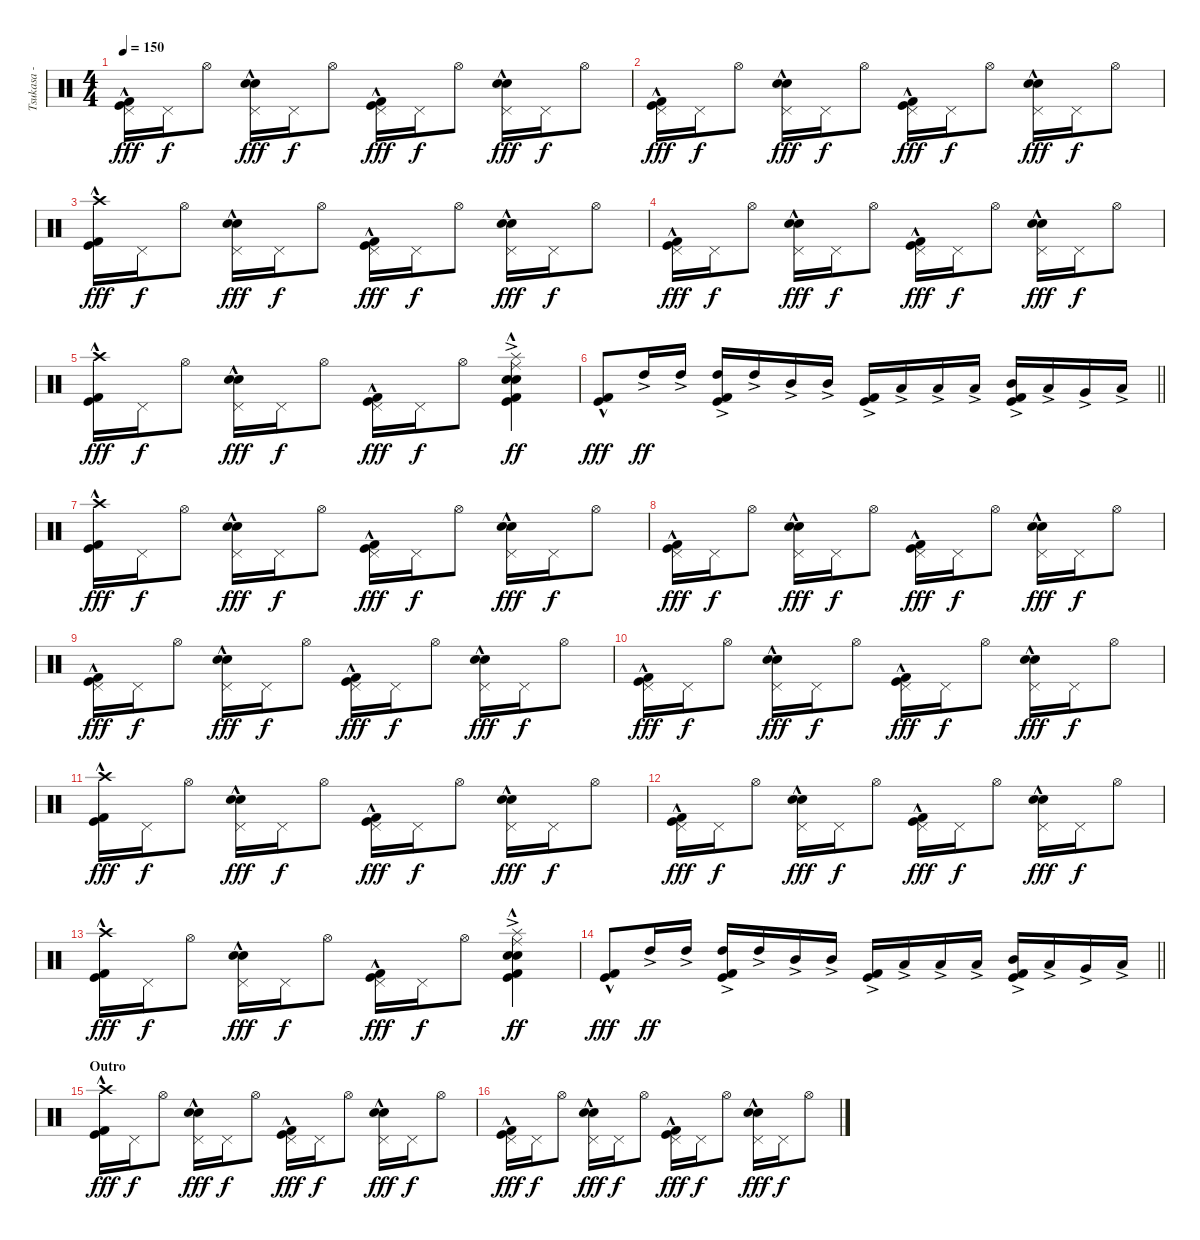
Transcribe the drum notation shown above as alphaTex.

\track ("Tsukasa - Drums" "Tsukasa - ") {instrument percussion}
\staff {score}
\articulation defaults
\ts (4 4)
\tempo 150
\clef neutral
\ks c
("Pedal Hi-Hat (hit)" "Kick (hit)"{hac} "Kick (hit) 2"{hac}).16{dy fff} "Pedal Hi-Hat (hit)".16{dy f} "Hi-Hat (open)".8 ("Pedal Hi-Hat (hit)" "Electric Snare (hit)"{hac} "Snare (hit) 2").16{dy fff} "Pedal Hi-Hat (hit)".16{dy f} "Hi-Hat (open)".8 ("Pedal Hi-Hat (hit)" "Kick (hit)"{hac} "Kick (hit) 2"{hac}).16{dy fff} "Pedal Hi-Hat (hit)".16{dy f} "Hi-Hat (open)".8 ("Pedal Hi-Hat (hit)" "Electric Snare (hit)"{hac} "Snare (hit) 2").16{dy fff} "Pedal Hi-Hat (hit)".16{dy f} "Hi-Hat (open)".8 |
("Pedal Hi-Hat (hit)" "Kick (hit)"{hac} "Kick (hit) 2"{hac}).16{dy fff} "Pedal Hi-Hat (hit)".16{dy f} "Hi-Hat (open)".8 ("Pedal Hi-Hat (hit)" "Electric Snare (hit)"{hac} "Snare (hit) 2").16{dy fff} "Pedal Hi-Hat (hit)".16{dy f} "Hi-Hat (open)".8 ("Pedal Hi-Hat (hit)" "Kick (hit)"{hac} "Kick (hit) 2"{hac}).16{dy fff} "Pedal Hi-Hat (hit)".16{dy f} "Hi-Hat (open)".8 ("Pedal Hi-Hat (hit)" "Electric Snare (hit)"{hac} "Snare (hit) 2").16{dy fff} "Pedal Hi-Hat (hit)".16{dy f} "Hi-Hat (open)".8 |
("Crash high (hit)" "Kick (hit)"{hac} "Kick (hit) 2"{hac}).16{dy fff} "Pedal Hi-Hat (hit)".16{dy f} "Hi-Hat (open)".8 ("Pedal Hi-Hat (hit)" "Electric Snare (hit)"{hac} "Snare (hit) 2").16{dy fff} "Pedal Hi-Hat (hit)".16{dy f} "Hi-Hat (open)".8 ("Pedal Hi-Hat (hit)" "Kick (hit)"{hac} "Kick (hit) 2"{hac}).16{dy fff} "Pedal Hi-Hat (hit)".16{dy f} "Hi-Hat (open)".8 ("Pedal Hi-Hat (hit)" "Electric Snare (hit)"{hac} "Snare (hit) 2").16{dy fff} "Pedal Hi-Hat (hit)".16{dy f} "Hi-Hat (open)".8 |
("Pedal Hi-Hat (hit)" "Kick (hit)"{hac} "Kick (hit) 2"{hac}).16{dy fff} "Pedal Hi-Hat (hit)".16{dy f} "Hi-Hat (open)".8 ("Pedal Hi-Hat (hit)" "Electric Snare (hit)"{hac} "Snare (hit) 2").16{dy fff} "Pedal Hi-Hat (hit)".16{dy f} "Hi-Hat (open)".8 ("Pedal Hi-Hat (hit)" "Kick (hit)"{hac} "Kick (hit) 2"{hac}).16{dy fff} "Pedal Hi-Hat (hit)".16{dy f} "Hi-Hat (open)".8 ("Pedal Hi-Hat (hit)" "Electric Snare (hit)"{hac} "Snare (hit) 2").16{dy fff} "Pedal Hi-Hat (hit)".16{dy f} "Hi-Hat (open)".8 |
("Crash high (hit)" "Kick (hit)"{hac} "Kick (hit) 2"{hac}).16{dy fff} "Pedal Hi-Hat (hit)".16{dy f} "Hi-Hat (open)".8 ("Pedal Hi-Hat (hit)" "Electric Snare (hit)"{hac} "Snare (hit) 2").16{dy fff} "Pedal Hi-Hat (hit)".16{dy f} "Hi-Hat (open)".8 ("Pedal Hi-Hat (hit)" "Kick (hit)"{hac} "Kick (hit) 2"{hac}).16{dy fff} "Pedal Hi-Hat (hit)".16{dy f} "Hi-Hat (open)".8 ("Splash (hit)"{ac} "Ride (middle)"{hac} "Electric Snare (hit)" "Snare (hit) 2" "Kick (hit)" "Kick (hit) 2"{ac}).4{dy ff} |
\barLineRight lightlight
("Kick (hit)"{hac} "Kick (hit) 2"{hac}).8{dy fff} "High Tom (hit)"{ac}.16{dy ff} "High Tom (hit)"{ac}.16 ("High Tom (hit)"{ac} "Kick (hit)" "Kick (hit) 2"{ac}).16 "High Tom (hit)"{ac}.16 "Mid Tom (hit)"{ac}.16 "Mid Tom (hit)"{ac}.16 ("Kick (hit)" "Kick (hit) 2"{ac}).16 "Low Tom (hit)"{ac}.16 "Low Tom (hit)"{ac}.16 "Low Tom (hit)"{ac}.16 ("Mid Tom (hit)"{ac} "Kick (hit)" "Kick (hit) 2"{ac}).16 "Low Tom (hit)"{ac}.16 "Very Low Tom (hit)"{ac}.16 "Low Floor Tom (hit)"{ac}.16 |
\section ("" "")
("Crash high (hit)" "Kick (hit)"{hac} "Kick (hit) 2"{hac}).16{dy fff} "Pedal Hi-Hat (hit)".16{dy f} "Hi-Hat (open)".8 ("Pedal Hi-Hat (hit)" "Electric Snare (hit)"{hac} "Snare (hit) 2").16{dy fff} "Pedal Hi-Hat (hit)".16{dy f} "Hi-Hat (open)".8 ("Pedal Hi-Hat (hit)" "Kick (hit)"{hac} "Kick (hit) 2"{hac}).16{dy fff} "Pedal Hi-Hat (hit)".16{dy f} "Hi-Hat (open)".8 ("Pedal Hi-Hat (hit)" "Electric Snare (hit)"{hac} "Snare (hit) 2").16{dy fff} "Pedal Hi-Hat (hit)".16{dy f} "Hi-Hat (open)".8 |
("Pedal Hi-Hat (hit)" "Kick (hit)"{hac} "Kick (hit) 2"{hac}).16{dy fff} "Pedal Hi-Hat (hit)".16{dy f} "Hi-Hat (open)".8 ("Pedal Hi-Hat (hit)" "Electric Snare (hit)"{hac} "Snare (hit) 2").16{dy fff} "Pedal Hi-Hat (hit)".16{dy f} "Hi-Hat (open)".8 ("Pedal Hi-Hat (hit)" "Kick (hit)"{hac} "Kick (hit) 2"{hac}).16{dy fff} "Pedal Hi-Hat (hit)".16{dy f} "Hi-Hat (open)".8 ("Pedal Hi-Hat (hit)" "Electric Snare (hit)"{hac} "Snare (hit) 2").16{dy fff} "Pedal Hi-Hat (hit)".16{dy f} "Hi-Hat (open)".8 |
("Pedal Hi-Hat (hit)" "Kick (hit)"{hac} "Kick (hit) 2"{hac}).16{dy fff} "Pedal Hi-Hat (hit)".16{dy f} "Hi-Hat (open)".8 ("Pedal Hi-Hat (hit)" "Electric Snare (hit)"{hac} "Snare (hit) 2").16{dy fff} "Pedal Hi-Hat (hit)".16{dy f} "Hi-Hat (open)".8 ("Pedal Hi-Hat (hit)" "Kick (hit)"{hac} "Kick (hit) 2"{hac}).16{dy fff} "Pedal Hi-Hat (hit)".16{dy f} "Hi-Hat (open)".8 ("Pedal Hi-Hat (hit)" "Electric Snare (hit)"{hac} "Snare (hit) 2").16{dy fff} "Pedal Hi-Hat (hit)".16{dy f} "Hi-Hat (open)".8 |
("Pedal Hi-Hat (hit)" "Kick (hit)"{hac} "Kick (hit) 2"{hac}).16{dy fff} "Pedal Hi-Hat (hit)".16{dy f} "Hi-Hat (open)".8 ("Pedal Hi-Hat (hit)" "Electric Snare (hit)"{hac} "Snare (hit) 2").16{dy fff} "Pedal Hi-Hat (hit)".16{dy f} "Hi-Hat (open)".8 ("Pedal Hi-Hat (hit)" "Kick (hit)"{hac} "Kick (hit) 2"{hac}).16{dy fff} "Pedal Hi-Hat (hit)".16{dy f} "Hi-Hat (open)".8 ("Pedal Hi-Hat (hit)" "Electric Snare (hit)"{hac} "Snare (hit) 2").16{dy fff} "Pedal Hi-Hat (hit)".16{dy f} "Hi-Hat (open)".8 |
("Crash high (hit)" "Kick (hit)"{hac} "Kick (hit) 2"{hac}).16{dy fff} "Pedal Hi-Hat (hit)".16{dy f} "Hi-Hat (open)".8 ("Pedal Hi-Hat (hit)" "Electric Snare (hit)"{hac} "Snare (hit) 2").16{dy fff} "Pedal Hi-Hat (hit)".16{dy f} "Hi-Hat (open)".8 ("Pedal Hi-Hat (hit)" "Kick (hit)"{hac} "Kick (hit) 2"{hac}).16{dy fff} "Pedal Hi-Hat (hit)".16{dy f} "Hi-Hat (open)".8 ("Pedal Hi-Hat (hit)" "Electric Snare (hit)"{hac} "Snare (hit) 2").16{dy fff} "Pedal Hi-Hat (hit)".16{dy f} "Hi-Hat (open)".8 |
("Pedal Hi-Hat (hit)" "Kick (hit)"{hac} "Kick (hit) 2"{hac}).16{dy fff} "Pedal Hi-Hat (hit)".16{dy f} "Hi-Hat (open)".8 ("Pedal Hi-Hat (hit)" "Electric Snare (hit)"{hac} "Snare (hit) 2").16{dy fff} "Pedal Hi-Hat (hit)".16{dy f} "Hi-Hat (open)".8 ("Pedal Hi-Hat (hit)" "Kick (hit)"{hac} "Kick (hit) 2"{hac}).16{dy fff} "Pedal Hi-Hat (hit)".16{dy f} "Hi-Hat (open)".8 ("Pedal Hi-Hat (hit)" "Electric Snare (hit)"{hac} "Snare (hit) 2").16{dy fff} "Pedal Hi-Hat (hit)".16{dy f} "Hi-Hat (open)".8 |
("Crash high (hit)" "Kick (hit)"{hac} "Kick (hit) 2"{hac}).16{dy fff} "Pedal Hi-Hat (hit)".16{dy f} "Hi-Hat (open)".8 ("Pedal Hi-Hat (hit)" "Electric Snare (hit)"{hac} "Snare (hit) 2").16{dy fff} "Pedal Hi-Hat (hit)".16{dy f} "Hi-Hat (open)".8 ("Pedal Hi-Hat (hit)" "Kick (hit)"{hac} "Kick (hit) 2"{hac}).16{dy fff} "Pedal Hi-Hat (hit)".16{dy f} "Hi-Hat (open)".8 ("Splash (hit)"{ac} "Ride (middle)"{hac} "Electric Snare (hit)" "Snare (hit) 2" "Kick (hit)" "Kick (hit) 2"{ac}).4{dy ff} |
\barLineRight lightlight
("Kick (hit)"{hac} "Kick (hit) 2"{hac}).8{dy fff} "High Tom (hit)"{ac}.16{dy ff} "High Tom (hit)"{ac}.16 ("High Tom (hit)"{ac} "Kick (hit)" "Kick (hit) 2"{ac}).16 "High Tom (hit)"{ac}.16 "Mid Tom (hit)"{ac}.16 "Mid Tom (hit)"{ac}.16 ("Kick (hit)" "Kick (hit) 2"{ac}).16 "Low Tom (hit)"{ac}.16 "Low Tom (hit)"{ac}.16 "Low Tom (hit)"{ac}.16 ("Mid Tom (hit)"{ac} "Kick (hit)" "Kick (hit) 2"{ac}).16 "Low Tom (hit)"{ac}.16 "Very Low Tom (hit)"{ac}.16 "Low Floor Tom (hit)"{ac}.16 |
\section ("" "Outro")
("Crash high (hit)" "Kick (hit)"{hac} "Kick (hit) 2"{hac}).16{dy fff} "Pedal Hi-Hat (hit)".16{dy f} "Hi-Hat (open)".8 ("Pedal Hi-Hat (hit)" "Electric Snare (hit)"{hac} "Snare (hit) 2").16{dy fff} "Pedal Hi-Hat (hit)".16{dy f} "Hi-Hat (open)".8 ("Pedal Hi-Hat (hit)" "Kick (hit)"{hac} "Kick (hit) 2"{hac}).16{dy fff} "Pedal Hi-Hat (hit)".16{dy f} "Hi-Hat (open)".8 ("Pedal Hi-Hat (hit)" "Electric Snare (hit)"{hac} "Snare (hit) 2").16{dy fff} "Pedal Hi-Hat (hit)".16{dy f} "Hi-Hat (open)".8 |
("Pedal Hi-Hat (hit)" "Kick (hit)"{hac} "Kick (hit) 2"{hac}).16{dy fff} "Pedal Hi-Hat (hit)".16{dy f} "Hi-Hat (open)".8 ("Pedal Hi-Hat (hit)" "Electric Snare (hit)"{hac} "Snare (hit) 2").16{dy fff} "Pedal Hi-Hat (hit)".16{dy f} "Hi-Hat (open)".8 ("Pedal Hi-Hat (hit)" "Kick (hit)"{hac} "Kick (hit) 2"{hac}).16{dy fff} "Pedal Hi-Hat (hit)".16{dy f} "Hi-Hat (open)".8 ("Pedal Hi-Hat (hit)" "Electric Snare (hit)"{hac} "Snare (hit) 2").16{dy fff} "Pedal Hi-Hat (hit)".16{dy f} "Hi-Hat (open)".8
